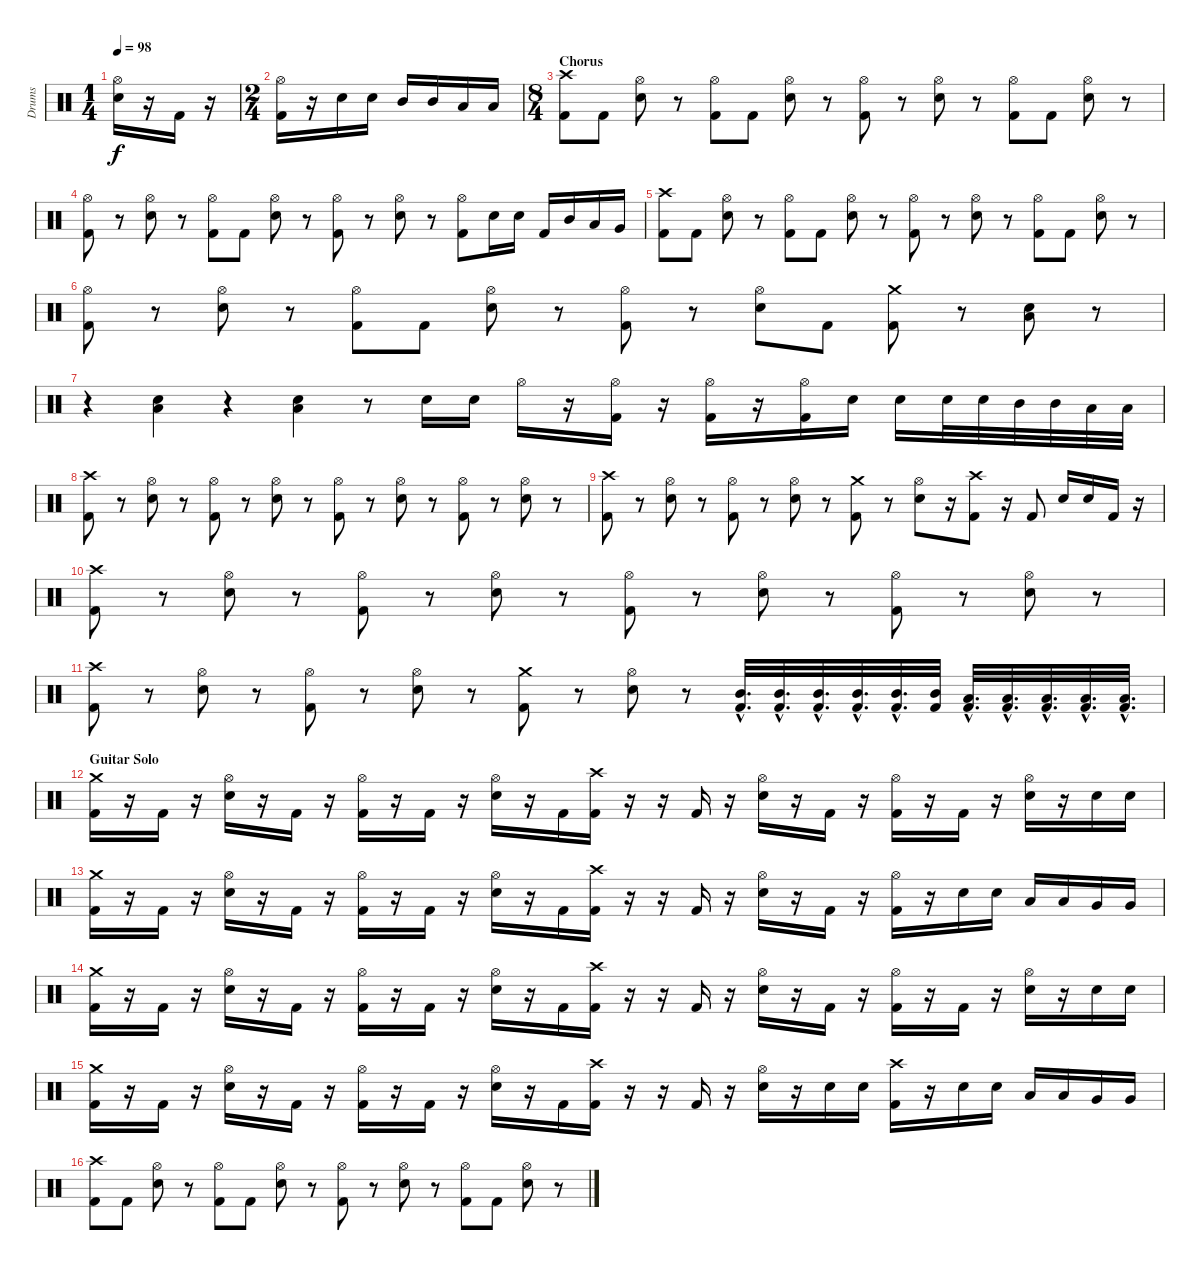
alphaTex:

\track ("Drums" "Drums") {instrument percussion}
\staff {score}
\articulation defaults
\ts (1 4)
\tempo 98
\clef neutral
\ks c
("Hi-Hat (open)" "Electric Snare (hit)").16{dy f} r.16 "Kick (hit) 2".16 r.16 |
\ts (2 4)
("Hi-Hat (open)" "Kick (hit) 2").16 r.16 "Electric Snare (hit)".16 "Electric Snare (hit)".16 "Mid Tom (hit)".16 "Mid Tom (hit)".16 "Low Tom (hit)".16 "Low Tom (hit)".16 |
\ts (8 4)
\section ("" "Chorus")
("Crash high (hit)" "Kick (hit) 2").8 "Kick (hit) 2".8 ("Hi-Hat (open)" "Electric Snare (hit)").8 r.8 ("Hi-Hat (open)" "Kick (hit) 2").8 "Kick (hit) 2".8 ("Hi-Hat (open)" "Electric Snare (hit)").8 r.8 ("Hi-Hat (open)" "Kick (hit) 2").8 r.8 ("Hi-Hat (open)" "Electric Snare (hit)").8 r.8 ("Hi-Hat (open)" "Kick (hit) 2").8 "Kick (hit) 2".8 ("Hi-Hat (open)" "Electric Snare (hit)").8 r.8 |
("Hi-Hat (open)" "Kick (hit) 2").8 r.8 ("Hi-Hat (open)" "Electric Snare (hit)").8 r.8 ("Hi-Hat (open)" "Kick (hit) 2").8 "Kick (hit) 2".8 ("Hi-Hat (open)" "Electric Snare (hit)").8 r.8 ("Hi-Hat (open)" "Kick (hit) 2").8 r.8 ("Hi-Hat (open)" "Electric Snare (hit)").8 r.8 ("Hi-Hat (open)" "Kick (hit) 2").8 "Electric Snare (hit)".16 "Electric Snare (hit)".16 "Kick (hit) 2".16 "Mid Tom (hit)".16 "Low Tom (hit)".16 "Very Low Tom (hit)".16 |
("Crash high (hit)" "Kick (hit) 2").8 "Kick (hit) 2".8 ("Hi-Hat (open)" "Electric Snare (hit)").8 r.8 ("Hi-Hat (open)" "Kick (hit) 2").8 "Kick (hit) 2".8 ("Hi-Hat (open)" "Electric Snare (hit)").8 r.8 ("Hi-Hat (open)" "Kick (hit) 2").8 r.8 ("Hi-Hat (open)" "Electric Snare (hit)").8 r.8 ("Hi-Hat (open)" "Kick (hit) 2").8 "Kick (hit) 2".8 ("Hi-Hat (open)" "Electric Snare (hit)").8 r.8 |
("Hi-Hat (open)" "Kick (hit) 2").8 r.8 ("Hi-Hat (open)" "Electric Snare (hit)").8 r.8 ("Hi-Hat (open)" "Kick (hit) 2").8 "Kick (hit) 2".8 ("Hi-Hat (open)" "Electric Snare (hit)").8 r.8 ("Hi-Hat (open)" "Kick (hit) 2").8 r.8 ("Hi-Hat (open)" "Electric Snare (hit)").8 "Kick (hit) 2".8 ("Crash medium (hit)" "Kick (hit) 2").8 r.8 ("Low Floor Tom (hit)" "Electric Snare (hit)").8 r.8 |
r.4 ("Low Floor Tom (hit)" "Electric Snare (hit)").4 r.4 ("Low Floor Tom (hit)" "Electric Snare (hit)").4 r.8 "Electric Snare (hit)".16 "Electric Snare (hit)".16 "Hi-Hat (open)".16 r.16 ("Hi-Hat (open)" "Kick (hit) 2").16 r.16 ("Hi-Hat (open)" "Kick (hit) 2").16 r.16 ("Hi-Hat (open)" "Kick (hit) 2").16 "Electric Snare (hit)".16 "Electric Snare (hit)".16 "Electric Snare (hit)".32 "Electric Snare (hit)".32 "Mid Tom (hit)".32 "Mid Tom (hit)".32 "Low Tom (hit)".32 "Low Tom (hit)".32 |
("Crash high (hit)" "Kick (hit) 2").8 r.8 ("Hi-Hat (open)" "Electric Snare (hit)").8 r.8 ("Hi-Hat (open)" "Kick (hit) 2").8 r.8 ("Hi-Hat (open)" "Electric Snare (hit)").8 r.8 ("Hi-Hat (open)" "Kick (hit) 2").8 r.8 ("Hi-Hat (open)" "Electric Snare (hit)").8 r.8 ("Hi-Hat (open)" "Kick (hit) 2").8 r.8 ("Hi-Hat (open)" "Electric Snare (hit)").8 r.8 |
("Crash high (hit)" "Kick (hit) 2").8 r.8 ("Hi-Hat (open)" "Electric Snare (hit)").8 r.8 ("Hi-Hat (open)" "Kick (hit) 2").8 r.8 ("Hi-Hat (open)" "Electric Snare (hit)").8 r.8 ("Crash medium (hit)" "Kick (hit) 2").8 r.8 ("Hi-Hat (open)" "Electric Snare (hit)").8 r.16 ("Crash high (hit)" "Kick (hit) 2").8 r.16 "Kick (hit) 2".8 "Electric Snare (hit)".16 "Electric Snare (hit)".16 "Kick (hit) 2".16 r.16 |
("Crash high (hit)" "Kick (hit) 2").8 r.8 ("Hi-Hat (open)" "Electric Snare (hit)").8 r.8 ("Hi-Hat (open)" "Kick (hit) 2").8 r.8 ("Hi-Hat (open)" "Electric Snare (hit)").8 r.8 ("Hi-Hat (open)" "Kick (hit) 2").8 r.8 ("Hi-Hat (open)" "Electric Snare (hit)").8 r.8 ("Hi-Hat (open)" "Kick (hit) 2").8 r.8 ("Hi-Hat (open)" "Electric Snare (hit)").8 r.8 |
("Crash high (hit)" "Kick (hit) 2").8 r.8 ("Hi-Hat (open)" "Electric Snare (hit)").8 r.8 ("Hi-Hat (open)" "Kick (hit) 2").8 r.8 ("Hi-Hat (open)" "Electric Snare (hit)").8 r.8 ("Crash medium (hit)" "Kick (hit) 2").8 r.8 ("Hi-Hat (open)" "Electric Snare (hit)").8 r.8 ("Mid Tom (hit)"{hac} "Kick (hit) 2"{hac}).32{d} ("Mid Tom (hit)"{hac} "Kick (hit) 2"{hac}).32{d} ("Mid Tom (hit)"{hac} "Kick (hit) 2"{hac}).32{d} ("Mid Tom (hit)"{hac} "Kick (hit) 2"{hac}).32{d} ("Mid Tom (hit)"{hac} "Kick (hit) 2"{hac}).32{d} ("Mid Tom (hit)" "Kick (hit) 2").32 ("Low Tom (hit)"{hac} "Kick (hit) 2"{hac}).32{d} ("Low Tom (hit)"{hac} "Kick (hit) 2"{hac}).32{d} ("Low Tom (hit)"{hac} "Kick (hit) 2"{hac}).32{d} ("Low Tom (hit)"{hac} "Kick (hit) 2"{hac}).32{d} ("Low Tom (hit)"{hac} "Kick (hit) 2"{hac}).32{d} |
\section ("" "Guitar Solo")
("Crash medium (hit)" "Kick (hit) 2").16 r.16 "Kick (hit) 2".16 r.16 ("Hi-Hat (open)" "Electric Snare (hit)").16 r.16 "Kick (hit) 2".16 r.16 ("Hi-Hat (open)" "Kick (hit) 2").16 r.16 "Kick (hit) 2".16 r.16 ("Hi-Hat (open)" "Electric Snare (hit)").16 r.16 "Kick (hit) 2".16 ("Crash high (hit)" "Kick (hit) 2").16 r.16 r.16 "Kick (hit) 2".16 r.16 ("Hi-Hat (open)" "Electric Snare (hit)").16 r.16 "Kick (hit) 2".16 r.16 ("Hi-Hat (open)" "Kick (hit) 2").16 r.16 "Kick (hit) 2".16 r.16 ("Hi-Hat (open)" "Electric Snare (hit)").16 r.16 "Electric Snare (hit)".16 "Electric Snare (hit)".16 |
("Crash medium (hit)" "Kick (hit) 2").16 r.16 "Kick (hit) 2".16 r.16 ("Hi-Hat (open)" "Electric Snare (hit)").16 r.16 "Kick (hit) 2".16 r.16 ("Hi-Hat (open)" "Kick (hit) 2").16 r.16 "Kick (hit) 2".16 r.16 ("Hi-Hat (open)" "Electric Snare (hit)").16 r.16 "Kick (hit) 2".16 ("Crash high (hit)" "Kick (hit) 2").16 r.16 r.16 "Kick (hit) 2".16 r.16 ("Hi-Hat (open)" "Electric Snare (hit)").16 r.16 "Kick (hit) 2".16 r.16 ("Hi-Hat (open)" "Kick (hit) 2").16 r.16 "Electric Snare (hit)".16 "Electric Snare (hit)".16 "Low Tom (hit)".16 "Low Tom (hit)".16 "Very Low Tom (hit)".16 "Very Low Tom (hit)".16 |
("Crash medium (hit)" "Kick (hit) 2").16 r.16 "Kick (hit) 2".16 r.16 ("Hi-Hat (open)" "Electric Snare (hit)").16 r.16 "Kick (hit) 2".16 r.16 ("Hi-Hat (open)" "Kick (hit) 2").16 r.16 "Kick (hit) 2".16 r.16 ("Hi-Hat (open)" "Electric Snare (hit)").16 r.16 "Kick (hit) 2".16 ("Crash high (hit)" "Kick (hit) 2").16 r.16 r.16 "Kick (hit) 2".16 r.16 ("Hi-Hat (open)" "Electric Snare (hit)").16 r.16 "Kick (hit) 2".16 r.16 ("Hi-Hat (open)" "Kick (hit) 2").16 r.16 "Kick (hit) 2".16 r.16 ("Hi-Hat (open)" "Electric Snare (hit)").16 r.16 "Electric Snare (hit)".16 "Electric Snare (hit)".16 |
("Crash medium (hit)" "Kick (hit) 2").16 r.16 "Kick (hit) 2".16 r.16 ("Hi-Hat (open)" "Electric Snare (hit)").16 r.16 "Kick (hit) 2".16 r.16 ("Hi-Hat (open)" "Kick (hit) 2").16 r.16 "Kick (hit) 2".16 r.16 ("Hi-Hat (open)" "Electric Snare (hit)").16 r.16 "Kick (hit) 2".16 ("Crash high (hit)" "Kick (hit) 2").16 r.16 r.16 "Kick (hit) 2".16 r.16 ("Hi-Hat (open)" "Electric Snare (hit)").16 r.16 "Electric Snare (hit)".16 "Electric Snare (hit)".16 ("Crash high (hit)" "Kick (hit) 2").16 r.16 "Electric Snare (hit)".16 "Electric Snare (hit)".16 "Low Tom (hit)".16 "Low Tom (hit)".16 "Very Low Tom (hit)".16 "Very Low Tom (hit)".16 |
("Crash high (hit)" "Kick (hit) 2").8 "Kick (hit) 2".8 ("Hi-Hat (open)" "Electric Snare (hit)").8 r.8 ("Hi-Hat (open)" "Kick (hit) 2").8 "Kick (hit) 2".8 ("Hi-Hat (open)" "Electric Snare (hit)").8 r.8 ("Hi-Hat (open)" "Kick (hit) 2").8 r.8 ("Hi-Hat (open)" "Electric Snare (hit)").8 r.8 ("Hi-Hat (open)" "Kick (hit) 2").8 "Kick (hit) 2".8 ("Hi-Hat (open)" "Electric Snare (hit)").8 r.8
